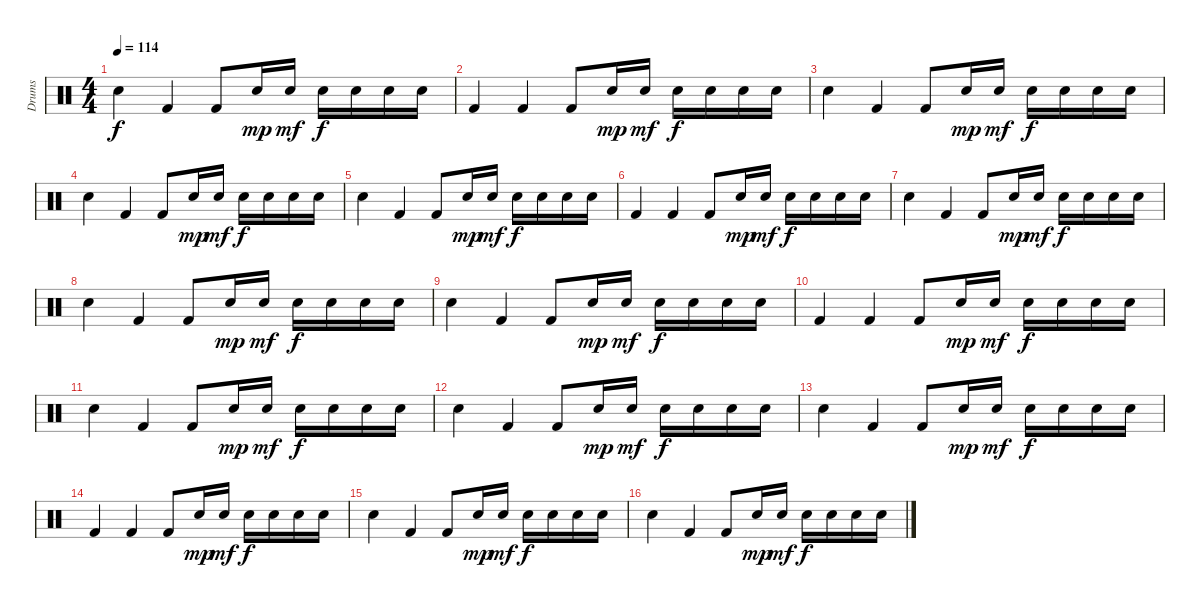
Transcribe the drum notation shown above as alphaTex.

\track ("Drums" "Drums") {instrument percussion}
\staff {score}
\articulation defaults
\ts (4 4)
\tempo 114
\clef neutral
\ks c "Electric Snare (hit)".4{dy f} "Kick (hit) 2".4 "Kick (hit) 2".8 "Electric Snare (hit)".16{dy mp} "Electric Snare (hit)".16{dy mf} "Electric Snare (hit)".16{dy f} "Electric Snare (hit)".16 "Electric Snare (hit)".16 "Electric Snare (hit)".16
|
"Kick (hit) 2".4 "Kick (hit) 2".4 "Kick (hit) 2".8 "Electric Snare (hit)".16{dy mp} "Electric Snare (hit)".16{dy mf} "Electric Snare (hit)".16{dy f} "Electric Snare (hit)".16 "Electric Snare (hit)".16 "Electric Snare (hit)".16 |
"Electric Snare (hit)".4 "Kick (hit) 2".4 "Kick (hit) 2".8 "Electric Snare (hit)".16{dy mp} "Electric Snare (hit)".16{dy mf} "Electric Snare (hit)".16{dy f} "Electric Snare (hit)".16 "Electric Snare (hit)".16 "Electric Snare (hit)".16 |
"Electric Snare (hit)".4 "Kick (hit) 2".4 "Kick (hit) 2".8 "Electric Snare (hit)".16{dy mp} "Electric Snare (hit)".16{dy mf} "Electric Snare (hit)".16{dy f} "Electric Snare (hit)".16 "Electric Snare (hit)".16 "Electric Snare (hit)".16 |
"Electric Snare (hit)".4 "Kick (hit) 2".4 "Kick (hit) 2".8 "Electric Snare (hit)".16{dy mp} "Electric Snare (hit)".16{dy mf} "Electric Snare (hit)".16{dy f} "Electric Snare (hit)".16 "Electric Snare (hit)".16 "Electric Snare (hit)".16 |
"Kick (hit) 2".4 "Kick (hit) 2".4 "Kick (hit) 2".8 "Electric Snare (hit)".16{dy mp} "Electric Snare (hit)".16{dy mf} "Electric Snare (hit)".16{dy f} "Electric Snare (hit)".16 "Electric Snare (hit)".16 "Electric Snare (hit)".16 |
"Electric Snare (hit)".4 "Kick (hit) 2".4 "Kick (hit) 2".8 "Electric Snare (hit)".16{dy mp} "Electric Snare (hit)".16{dy mf} "Electric Snare (hit)".16{dy f} "Electric Snare (hit)".16 "Electric Snare (hit)".16 "Electric Snare (hit)".16 |
"Electric Snare (hit)".4 "Kick (hit) 2".4 "Kick (hit) 2".8 "Electric Snare (hit)".16{dy mp} "Electric Snare (hit)".16{dy mf} "Electric Snare (hit)".16{dy f} "Electric Snare (hit)".16 "Electric Snare (hit)".16 "Electric Snare (hit)".16 |
"Electric Snare (hit)".4 "Kick (hit) 2".4 "Kick (hit) 2".8 "Electric Snare (hit)".16{dy mp} "Electric Snare (hit)".16{dy mf} "Electric Snare (hit)".16{dy f} "Electric Snare (hit)".16 "Electric Snare (hit)".16 "Electric Snare (hit)".16 |
"Kick (hit) 2".4 "Kick (hit) 2".4 "Kick (hit) 2".8 "Electric Snare (hit)".16{dy mp} "Electric Snare (hit)".16{dy mf} "Electric Snare (hit)".16{dy f} "Electric Snare (hit)".16 "Electric Snare (hit)".16 "Electric Snare (hit)".16 |
"Electric Snare (hit)".4 "Kick (hit) 2".4 "Kick (hit) 2".8 "Electric Snare (hit)".16{dy mp} "Electric Snare (hit)".16{dy mf} "Electric Snare (hit)".16{dy f} "Electric Snare (hit)".16 "Electric Snare (hit)".16 "Electric Snare (hit)".16 |
"Electric Snare (hit)".4 "Kick (hit) 2".4 "Kick (hit) 2".8 "Electric Snare (hit)".16{dy mp} "Electric Snare (hit)".16{dy mf} "Electric Snare (hit)".16{dy f} "Electric Snare (hit)".16 "Electric Snare (hit)".16 "Electric Snare (hit)".16 |
"Electric Snare (hit)".4 "Kick (hit) 2".4 "Kick (hit) 2".8 "Electric Snare (hit)".16{dy mp} "Electric Snare (hit)".16{dy mf} "Electric Snare (hit)".16{dy f} "Electric Snare (hit)".16 "Electric Snare (hit)".16 "Electric Snare (hit)".16 |
"Kick (hit) 2".4 "Kick (hit) 2".4 "Kick (hit) 2".8 "Electric Snare (hit)".16{dy mp} "Electric Snare (hit)".16{dy mf} "Electric Snare (hit)".16{dy f} "Electric Snare (hit)".16 "Electric Snare (hit)".16 "Electric Snare (hit)".16 |
"Electric Snare (hit)".4 "Kick (hit) 2".4 "Kick (hit) 2".8 "Electric Snare (hit)".16{dy mp} "Electric Snare (hit)".16{dy mf} "Electric Snare (hit)".16{dy f} "Electric Snare (hit)".16 "Electric Snare (hit)".16 "Electric Snare (hit)".16 |
"Electric Snare (hit)".4 "Kick (hit) 2".4 "Kick (hit) 2".8 "Electric Snare (hit)".16{dy mp} "Electric Snare (hit)".16{dy mf} "Electric Snare (hit)".16{dy f} "Electric Snare (hit)".16 "Electric Snare (hit)".16 "Electric Snare (hit)".16
